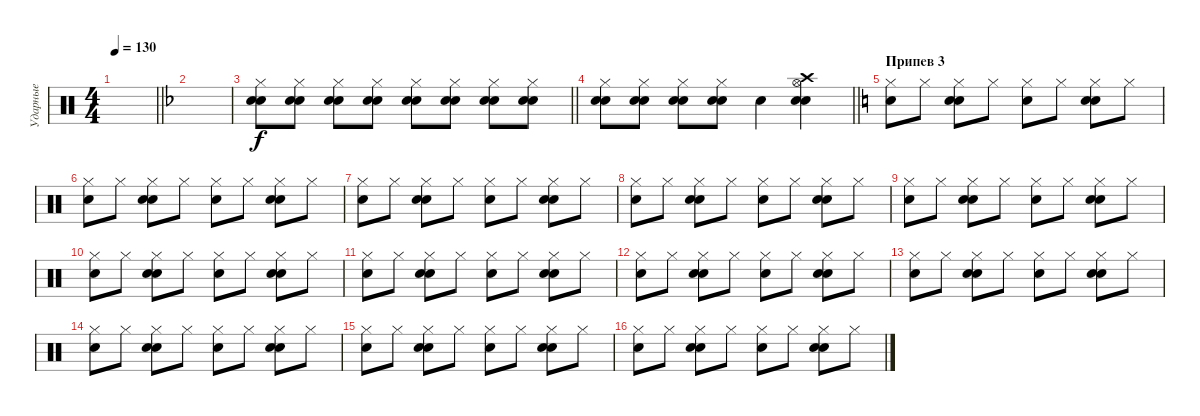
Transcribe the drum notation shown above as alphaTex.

\track ("Ударные" "Ударные") {instrument percussion}
\staff {score}
\articulation defaults
\ts (4 4)
\tempo 130
\clef neutral
\barLineRight lightlight
\ks c
|
\ks f
|
\barLineRight lightlight
("Hi-Hat (closed)" "Snare (hit) 2" "Electric Snare (hit)").8 ("Hi-Hat (closed)" "Snare (hit) 2" "Electric Snare (hit)").8 ("Hi-Hat (closed)" "Snare (hit) 2" "Electric Snare (hit)").8 ("Hi-Hat (closed)" "Snare (hit) 2" "Electric Snare (hit)").8 ("Hi-Hat (closed)" "Snare (hit) 2" "Electric Snare (hit)").8 ("Hi-Hat (closed)" "Snare (hit) 2" "Electric Snare (hit)").8 ("Hi-Hat (closed)" "Snare (hit) 2" "Electric Snare (hit)").8 ("Hi-Hat (closed)" "Snare (hit) 2" "Electric Snare (hit)").8 |
\barLineRight lightlight
("Hi-Hat (closed)" "Snare (hit) 2" "Electric Snare (hit)").8 ("Hi-Hat (closed)" "Snare (hit) 2" "Electric Snare (hit)").8 ("Hi-Hat (closed)" "Snare (hit) 2" "Electric Snare (hit)").8 ("Hi-Hat (closed)" "Snare (hit) 2" "Electric Snare (hit)").8 "Snare (hit) 2".4 ("Hi-Hat (open)" "Snare (hit) 2" "Electric Snare (hit)" "Crash high (hit)").4 |
\section ("" "Припев 3")
\ks c
("Hi-Hat (closed)" "Snare (hit) 2").8 "Hi-Hat (closed)".8 ("Hi-Hat (closed)" "Snare (hit) 2" "Electric Snare (hit)").8 "Hi-Hat (closed)".8 ("Hi-Hat (closed)" "Snare (hit) 2").8 "Hi-Hat (closed)".8 ("Hi-Hat (closed)" "Snare (hit) 2" "Electric Snare (hit)").8 "Hi-Hat (closed)".8 |
("Hi-Hat (closed)" "Snare (hit) 2").8 "Hi-Hat (closed)".8 ("Hi-Hat (closed)" "Snare (hit) 2" "Electric Snare (hit)").8 "Hi-Hat (closed)".8 ("Hi-Hat (closed)" "Snare (hit) 2").8 "Hi-Hat (closed)".8 ("Hi-Hat (closed)" "Snare (hit) 2" "Electric Snare (hit)").8 "Hi-Hat (closed)".8 |
("Hi-Hat (closed)" "Snare (hit) 2").8 "Hi-Hat (closed)".8 ("Hi-Hat (closed)" "Snare (hit) 2" "Electric Snare (hit)").8 "Hi-Hat (closed)".8 ("Hi-Hat (closed)" "Snare (hit) 2").8 "Hi-Hat (closed)".8 ("Hi-Hat (closed)" "Snare (hit) 2" "Electric Snare (hit)").8 "Hi-Hat (closed)".8 |
("Hi-Hat (closed)" "Snare (hit) 2").8 "Hi-Hat (closed)".8 ("Hi-Hat (closed)" "Snare (hit) 2" "Electric Snare (hit)").8 "Hi-Hat (closed)".8 ("Hi-Hat (closed)" "Snare (hit) 2").8 "Hi-Hat (closed)".8 ("Hi-Hat (closed)" "Snare (hit) 2" "Electric Snare (hit)").8 "Hi-Hat (closed)".8 |
("Hi-Hat (closed)" "Snare (hit) 2").8 "Hi-Hat (closed)".8 ("Hi-Hat (closed)" "Snare (hit) 2" "Electric Snare (hit)").8 "Hi-Hat (closed)".8 ("Hi-Hat (closed)" "Snare (hit) 2").8 "Hi-Hat (closed)".8 ("Hi-Hat (closed)" "Snare (hit) 2" "Electric Snare (hit)").8 "Hi-Hat (closed)".8 |
("Hi-Hat (closed)" "Snare (hit) 2").8 "Hi-Hat (closed)".8 ("Hi-Hat (closed)" "Snare (hit) 2" "Electric Snare (hit)").8 "Hi-Hat (closed)".8 ("Hi-Hat (closed)" "Snare (hit) 2").8 "Hi-Hat (closed)".8 ("Hi-Hat (closed)" "Snare (hit) 2" "Electric Snare (hit)").8 "Hi-Hat (closed)".8 |
("Hi-Hat (closed)" "Snare (hit) 2").8 "Hi-Hat (closed)".8 ("Hi-Hat (closed)" "Snare (hit) 2" "Electric Snare (hit)").8 "Hi-Hat (closed)".8 ("Hi-Hat (closed)" "Snare (hit) 2").8 "Hi-Hat (closed)".8 ("Hi-Hat (closed)" "Snare (hit) 2" "Electric Snare (hit)").8 "Hi-Hat (closed)".8 |
("Hi-Hat (closed)" "Snare (hit) 2").8 "Hi-Hat (closed)".8 ("Hi-Hat (closed)" "Snare (hit) 2" "Electric Snare (hit)").8 "Hi-Hat (closed)".8 ("Hi-Hat (closed)" "Snare (hit) 2").8 "Hi-Hat (closed)".8 ("Hi-Hat (closed)" "Snare (hit) 2" "Electric Snare (hit)").8 "Hi-Hat (closed)".8 |
("Hi-Hat (closed)" "Snare (hit) 2").8 "Hi-Hat (closed)".8 ("Hi-Hat (closed)" "Snare (hit) 2" "Electric Snare (hit)").8 "Hi-Hat (closed)".8 ("Hi-Hat (closed)" "Snare (hit) 2").8 "Hi-Hat (closed)".8 ("Hi-Hat (closed)" "Snare (hit) 2" "Electric Snare (hit)").8 "Hi-Hat (closed)".8 |
("Hi-Hat (closed)" "Snare (hit) 2").8 "Hi-Hat (closed)".8 ("Hi-Hat (closed)" "Snare (hit) 2" "Electric Snare (hit)").8 "Hi-Hat (closed)".8 ("Hi-Hat (closed)" "Snare (hit) 2").8 "Hi-Hat (closed)".8 ("Hi-Hat (closed)" "Snare (hit) 2" "Electric Snare (hit)").8 "Hi-Hat (closed)".8 |
("Hi-Hat (closed)" "Snare (hit) 2").8 "Hi-Hat (closed)".8 ("Hi-Hat (closed)" "Snare (hit) 2" "Electric Snare (hit)").8 "Hi-Hat (closed)".8 ("Hi-Hat (closed)" "Snare (hit) 2").8 "Hi-Hat (closed)".8 ("Hi-Hat (closed)" "Snare (hit) 2" "Electric Snare (hit)").8 "Hi-Hat (closed)".8 |
("Hi-Hat (closed)" "Snare (hit) 2").8 "Hi-Hat (closed)".8 ("Hi-Hat (closed)" "Snare (hit) 2" "Electric Snare (hit)").8 "Hi-Hat (closed)".8 ("Hi-Hat (closed)" "Snare (hit) 2").8 "Hi-Hat (closed)".8 ("Hi-Hat (closed)" "Snare (hit) 2" "Electric Snare (hit)").8 "Hi-Hat (closed)".8
